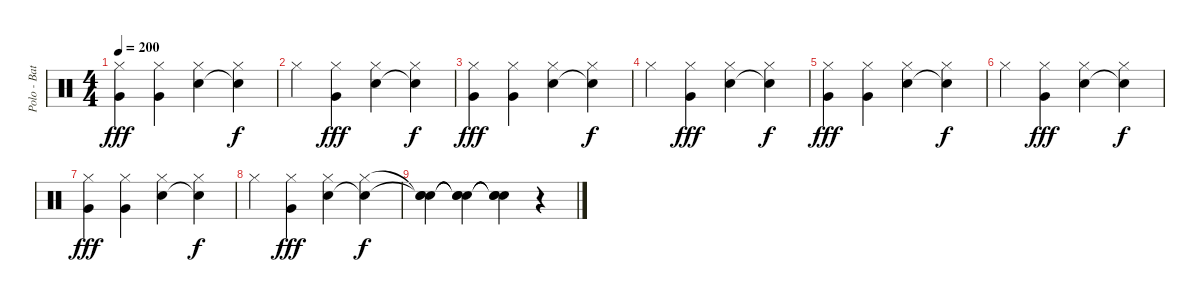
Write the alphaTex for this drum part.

\track ("Polo - Batería" "Polo - Bat") {instrument percussion}
\staff {score}
\articulation defaults
\ts (4 4)
\tempo 200
\clef neutral
\ks c
("Hi-Hat (closed)" "Very Low Tom (hit)").4{dy fff} ("Hi-Hat (closed)" "Very Low Tom (hit)").4 ("Hi-Hat (closed)" "Electric Snare (hit)").4 ("Hi-Hat (closed)" "Snare (hit)"{t}).4{dy f} |
"Hi-Hat (closed)".4 ("Hi-Hat (closed)" "Very Low Tom (hit)").4{dy fff} ("Hi-Hat (closed)" "Electric Snare (hit)").4 ("Hi-Hat (closed)" "Snare (hit)"{t}).4{dy f} |
("Hi-Hat (closed)" "Very Low Tom (hit)").4{dy fff} ("Hi-Hat (closed)" "Very Low Tom (hit)").4 ("Hi-Hat (closed)" "Electric Snare (hit)").4 ("Hi-Hat (closed)" "Snare (hit)"{t}).4{dy f} |
"Hi-Hat (closed)".4 ("Hi-Hat (closed)" "Very Low Tom (hit)").4{dy fff} ("Hi-Hat (closed)" "Electric Snare (hit)").4 ("Hi-Hat (closed)" "Snare (hit)"{t}).4{dy f} |
("Hi-Hat (closed)" "Very Low Tom (hit)").4{dy fff} ("Hi-Hat (closed)" "Very Low Tom (hit)").4 ("Hi-Hat (closed)" "Electric Snare (hit)").4 ("Hi-Hat (closed)" "Snare (hit)"{t}).4{dy f} |
"Hi-Hat (closed)".4 ("Hi-Hat (closed)" "Very Low Tom (hit)").4{dy fff} ("Hi-Hat (closed)" "Electric Snare (hit)").4 ("Hi-Hat (closed)" "Snare (hit)"{t}).4{dy f} |
("Hi-Hat (closed)" "Very Low Tom (hit)").4{dy fff} ("Hi-Hat (closed)" "Very Low Tom (hit)").4 ("Hi-Hat (closed)" "Electric Snare (hit)").4 ("Hi-Hat (closed)" "Snare (hit)"{t}).4{dy f} |
"Hi-Hat (closed)".4 ("Hi-Hat (closed)" "Very Low Tom (hit)").4{dy fff} ("Hi-Hat (closed)" "Electric Snare (hit)").4 ("Hi-Hat (closed)" "Snare (hit)"{t}).4{dy f} |
("Snare (hit)"{t} "Snare (hit)"{t} "Snare (hit)").4 ("Snare (hit)"{t} "Snare (hit)"{t} "Snare (hit)"{t}).4 ("Snare (hit)"{t} "Snare (hit)"{t} "Snare (hit)"{t}).4 r.4
